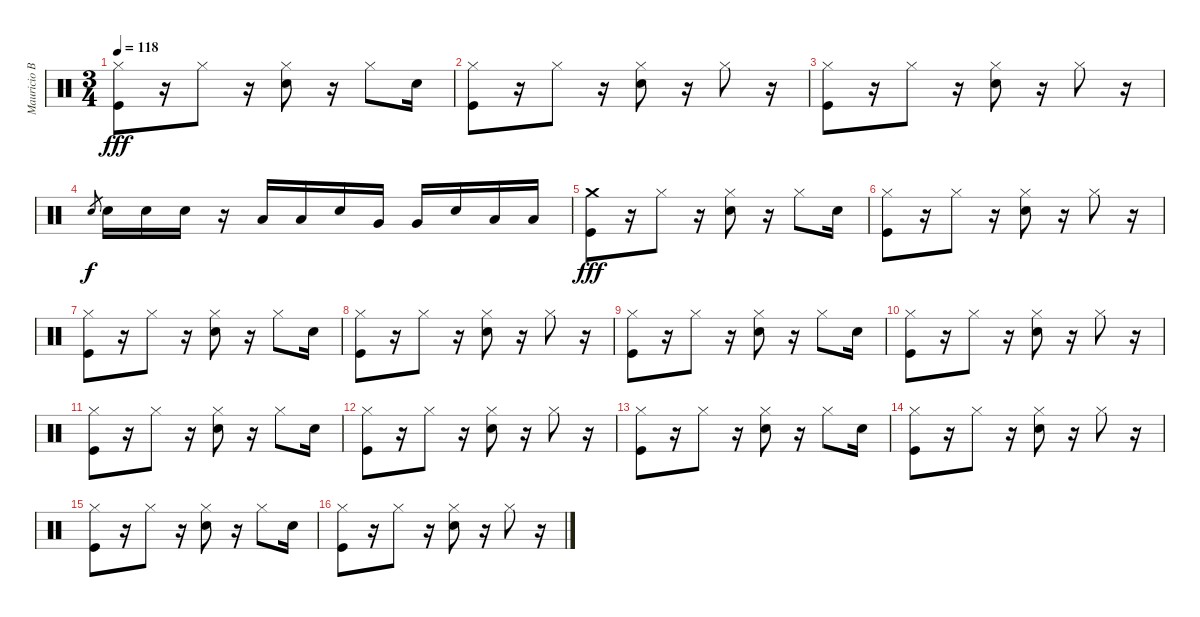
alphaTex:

\track ("Mauricio Basualto" "Mauricio B") {instrument percussion}
\staff {score}
\articulation defaults
\ts (3 4)
\tempo 118
\clef neutral
\ks c
("Hi-Hat (closed)" "Kick (hit)").8{dy fff} r.16 "Hi-Hat (closed)".8 r.16 ("Hi-Hat (closed)" "Snare (hit) 2").8 r.16 "Hi-Hat (closed)".8 "Snare (hit) 2".16 |
("Hi-Hat (closed)" "Kick (hit)").8 r.16 "Hi-Hat (closed)".8 r.16 ("Hi-Hat (closed)" "Snare (hit) 2").8 r.16 "Hi-Hat (closed)".8 r.16 |
("Hi-Hat (closed)" "Kick (hit)").8 r.16 "Hi-Hat (closed)".8 r.16 ("Hi-Hat (closed)" "Snare (hit) 2").8 r.16 "Hi-Hat (closed)".8 r.16 |
"Snare (hit) 2".8{gr dy f} "Snare (hit) 2".16 "Snare (hit) 2".16 "Snare (hit) 2".16 r.16 "Low Tom (hit)".16 "Low Tom (hit)".16 "Snare (hit) 2".16 "Very Low Tom (hit)".16 "Very Low Tom (hit)".16 "Snare (hit) 2".16 "Low Floor Tom (hit)".16 "Low Floor Tom (hit)".16 |
("Crash medium (hit)" "Kick (hit)").8{dy fff} r.16 "Hi-Hat (closed)".8 r.16 ("Hi-Hat (closed)" "Snare (hit) 2").8 r.16 "Hi-Hat (closed)".8 "Snare (hit) 2".16 |
("Hi-Hat (closed)" "Kick (hit)").8 r.16 "Hi-Hat (closed)".8 r.16 ("Hi-Hat (closed)" "Snare (hit) 2").8 r.16 "Hi-Hat (closed)".8 r.16 |
("Hi-Hat (closed)" "Kick (hit)").8 r.16 "Hi-Hat (closed)".8 r.16 ("Hi-Hat (closed)" "Snare (hit) 2").8 r.16 "Hi-Hat (closed)".8 "Snare (hit) 2".16 |
("Hi-Hat (closed)" "Kick (hit)").8 r.16 "Hi-Hat (closed)".8 r.16 ("Hi-Hat (closed)" "Snare (hit) 2").8 r.16 "Hi-Hat (closed)".8 r.16 |
("Hi-Hat (closed)" "Kick (hit)").8 r.16 "Hi-Hat (closed)".8 r.16 ("Hi-Hat (closed)" "Snare (hit) 2").8 r.16 "Hi-Hat (closed)".8 "Snare (hit) 2".16 |
("Hi-Hat (closed)" "Kick (hit)").8 r.16 "Hi-Hat (closed)".8 r.16 ("Hi-Hat (closed)" "Snare (hit) 2").8 r.16 "Hi-Hat (closed)".8 r.16 |
("Hi-Hat (closed)" "Kick (hit)").8 r.16 "Hi-Hat (closed)".8 r.16 ("Hi-Hat (closed)" "Snare (hit) 2").8 r.16 "Hi-Hat (closed)".8 "Snare (hit) 2".16 |
("Hi-Hat (closed)" "Kick (hit)").8 r.16 "Hi-Hat (closed)".8 r.16 ("Hi-Hat (closed)" "Snare (hit) 2").8 r.16 "Hi-Hat (closed)".8 r.16 |
("Hi-Hat (closed)" "Kick (hit)").8 r.16 "Hi-Hat (closed)".8 r.16 ("Hi-Hat (closed)" "Snare (hit) 2").8 r.16 "Hi-Hat (closed)".8 "Snare (hit) 2".16 |
("Hi-Hat (closed)" "Kick (hit)").8 r.16 "Hi-Hat (closed)".8 r.16 ("Hi-Hat (closed)" "Snare (hit) 2").8 r.16 "Hi-Hat (closed)".8 r.16 |
("Hi-Hat (closed)" "Kick (hit)").8 r.16 "Hi-Hat (closed)".8 r.16 ("Hi-Hat (closed)" "Snare (hit) 2").8 r.16 "Hi-Hat (closed)".8 "Snare (hit) 2".16 |
("Hi-Hat (closed)" "Kick (hit)").8 r.16 "Hi-Hat (closed)".8 r.16 ("Hi-Hat (closed)" "Snare (hit) 2").8 r.16 "Hi-Hat (closed)".8 r.16
